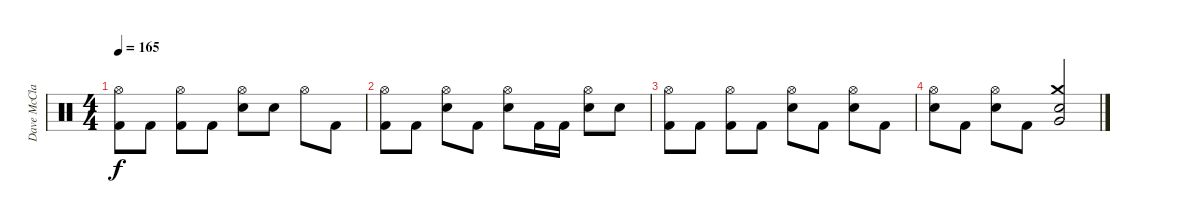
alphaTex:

\track ("Dave McClain" "Dave McCla") {instrument percussion}
\staff {score}
\articulation defaults
\ts (4 4)
\tempo 165
\clef neutral
\ks c
("Hi-Hat (open)" "Kick (hit) 2").8{dy f} "Kick (hit) 2".8 ("Hi-Hat (open)" "Kick (hit) 2").8 "Kick (hit) 2".8 ("Hi-Hat (open)" "Electric Snare (hit)").8 "Electric Snare (hit)".8 "Hi-Hat (open)".8 "Kick (hit) 2".8 |
("Hi-Hat (open)" "Kick (hit) 2").8 "Kick (hit) 2".8 ("Hi-Hat (open)" "Electric Snare (hit)").8 "Kick (hit) 2".8 ("Hi-Hat (open)" "Electric Snare (hit)").8 "Kick (hit) 2".16 "Kick (hit) 2".16 ("Hi-Hat (open)" "Electric Snare (hit)").8 "Electric Snare (hit)".8 |
("Hi-Hat (open)" "Kick (hit) 2").8 "Kick (hit) 2".8 ("Hi-Hat (open)" "Kick (hit) 2").8 "Kick (hit) 2".8 ("Hi-Hat (open)" "Electric Snare (hit)").8 "Kick (hit) 2".8 ("Hi-Hat (open)" "Electric Snare (hit)").8 "Kick (hit) 2".8 |
("Hi-Hat (open)" "Electric Snare (hit)").8 "Kick (hit) 2".8 ("Hi-Hat (open)" "Electric Snare (hit)").8 "Kick (hit) 2".8 ("Crash medium (hit)" "Very Low Tom (hit)" "Electric Snare (hit)").2
